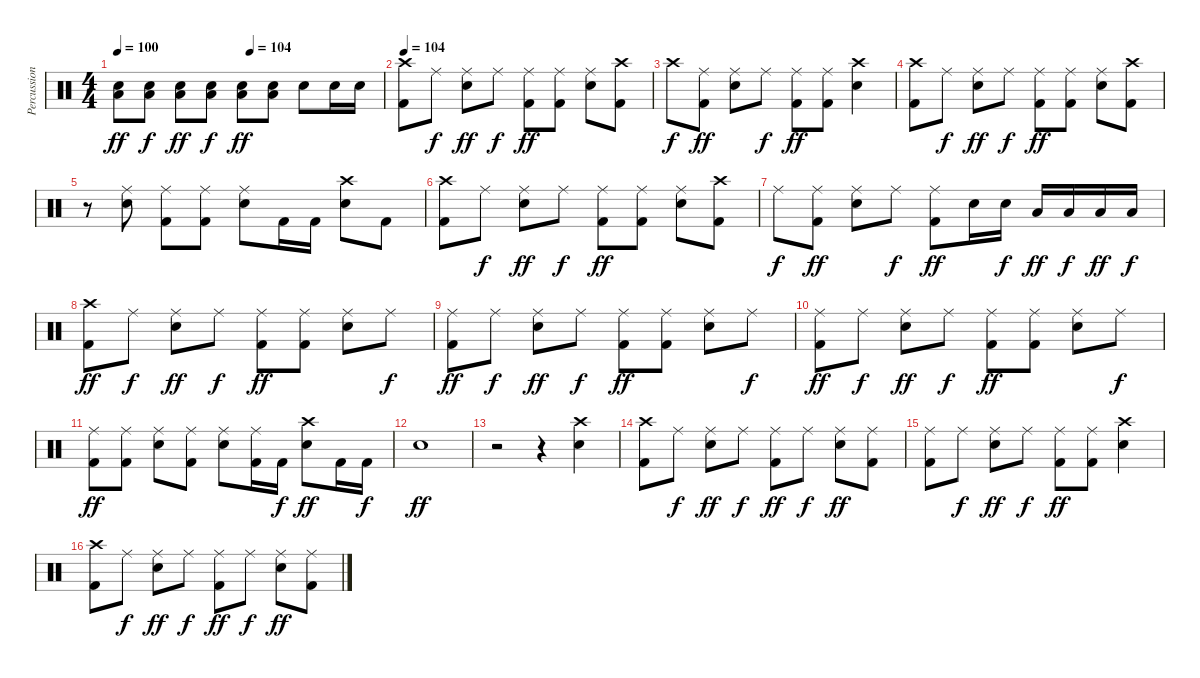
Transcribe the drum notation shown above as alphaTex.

\track ("Percussion" "Percussion") {instrument percussion}
\staff {score}
\articulation defaults
\ts (4 4)
\tempo 100
\tempo (104 0.5)
\clef neutral
\ks c
("Snare (hit) 2" "Low Floor Tom (hit)").8{dy ff} ("Snare (hit) 2" "Low Floor Tom (hit)").8{dy f} ("Snare (hit) 2" "Low Floor Tom (hit)").8{dy ff} ("Snare (hit) 2" "Low Floor Tom (hit)").8{dy f} ("Snare (hit) 2" "Low Floor Tom (hit)").8{dy ff} ("Snare (hit) 2" "Low Floor Tom (hit)").8 "Snare (hit) 2".8 "Snare (hit) 2".16 "Snare (hit) 2".16 |
\tempo 104
("Crash high (hit)" "Kick (hit) 2").8 "Ride (middle)".8{dy f} ("Ride (middle)" "Snare (hit) 2").8{dy ff} "Ride (middle)".8{dy f} ("Ride (middle)" "Kick (hit) 2").8{dy ff} ("Ride (middle)" "Kick (hit) 2").8 ("Ride (middle)" "Snare (hit) 2").8 ("Crash high (hit)" "Kick (hit) 2").8 |
"Crash high (hit)".8{dy f} ("Ride (middle)" "Kick (hit) 2").8{dy ff} ("Ride (middle)" "Snare (hit) 2").8 "Ride (middle)".8{dy f} ("Ride (middle)" "Kick (hit) 2").8{dy ff} ("Ride (middle)" "Kick (hit) 2").8 ("Crash high (hit)" "Snare (hit) 2").4 |
("Crash high (hit)" "Kick (hit) 2").8 "Ride (middle)".8{dy f} ("Ride (middle)" "Snare (hit) 2").8{dy ff} "Ride (middle)".8{dy f} ("Ride (middle)" "Kick (hit) 2").8{dy ff} ("Ride (middle)" "Kick (hit) 2").8 ("Ride (middle)" "Snare (hit) 2").8 ("Crash high (hit)" "Kick (hit) 2").8 |
r.8 ("Ride (middle)" "Snare (hit) 2").8 ("Ride (middle)" "Kick (hit) 2").8 ("Ride (middle)" "Kick (hit) 2").8 ("Ride (middle)" "Snare (hit) 2").8 "Kick (hit) 2".16 "Kick (hit) 2".16 ("Crash high (hit)" "Snare (hit) 2").8 "Kick (hit) 2".8 |
("Crash high (hit)" "Kick (hit) 2").8 "Ride (middle)".8{dy f} ("Ride (middle)" "Snare (hit) 2").8{dy ff} "Ride (middle)".8{dy f} ("Ride (middle)" "Kick (hit) 2").8{dy ff} ("Ride (middle)" "Kick (hit) 2").8 ("Ride (middle)" "Snare (hit) 2").8 ("Crash high (hit)" "Kick (hit) 2").8 |
"Ride (middle)".8{dy f} ("Ride (middle)" "Kick (hit) 2").8{dy ff} ("Ride (middle)" "Snare (hit) 2").8 "Ride (middle)".8{dy f} ("Ride (middle)" "Kick (hit) 2").8{dy ff} "Snare (hit) 2".16 "Snare (hit) 2".16{dy f} "Low Tom (hit)".16{dy ff} "Low Tom (hit)".16{dy f} "Low Floor Tom (hit)".16{dy ff} "Low Floor Tom (hit)".16{dy f} |
("Crash high (hit)" "Kick (hit) 2").8{dy ff} "Ride (middle)".8{dy f} ("Ride (middle)" "Snare (hit) 2").8{dy ff} "Ride (middle)".8{dy f} ("Ride (middle)" "Kick (hit) 2").8{dy ff} ("Ride (middle)" "Kick (hit) 2").8 ("Ride (middle)" "Snare (hit) 2").8 "Ride (middle)".8{dy f} |
("Ride (middle)" "Kick (hit) 2").8{dy ff} "Ride (middle)".8{dy f} ("Ride (middle)" "Snare (hit) 2").8{dy ff} "Ride (middle)".8{dy f} ("Ride (middle)" "Kick (hit) 2").8{dy ff} ("Ride (middle)" "Kick (hit) 2").8 ("Ride (middle)" "Snare (hit) 2").8 "Ride (middle)".8{dy f} |
("Ride (middle)" "Kick (hit) 2").8{dy ff} "Ride (middle)".8{dy f} ("Ride (middle)" "Snare (hit) 2").8{dy ff} "Ride (middle)".8{dy f} ("Ride (middle)" "Kick (hit) 2").8{dy ff} ("Ride (middle)" "Kick (hit) 2").8 ("Ride (middle)" "Snare (hit) 2").8 "Ride (middle)".8{dy f} |
("Ride (middle)" "Kick (hit) 2").8{dy ff} ("Ride (middle)" "Kick (hit) 2").8 ("Ride (middle)" "Snare (hit) 2").8 ("Ride (middle)" "Kick (hit) 2").8 ("Ride (middle)" "Snare (hit) 2").8 ("Ride (middle)" "Kick (hit) 2").16 "Kick (hit) 2".16{dy f} ("Crash high (hit)" "Snare (hit) 2").8{dy ff} "Kick (hit) 2".16 "Kick (hit) 2".16{dy f} |
"Snare (hit) 2".1{dy ff} |
r.2 r.4 ("Crash high (hit)" "Snare (hit) 2").4 |
("Crash high (hit)" "Kick (hit) 2").8 "Ride (middle)".8{dy f} ("Ride (middle)" "Snare (hit) 2").8{dy ff} "Ride (middle)".8{dy f} ("Ride (middle)" "Kick (hit) 2").8{dy ff} "Ride (middle)".8{dy f} ("Ride (middle)" "Snare (hit) 2").8{dy ff} ("Ride (middle)" "Kick (hit) 2").8 |
("Ride (middle)" "Kick (hit) 2").8 "Ride (middle)".8{dy f} ("Ride (middle)" "Snare (hit) 2").8{dy ff} "Ride (middle)".8{dy f} ("Ride (middle)" "Kick (hit) 2").8{dy ff} ("Ride (middle)" "Kick (hit) 2").8 ("Crash high (hit)" "Snare (hit) 2").4 |
("Crash high (hit)" "Kick (hit) 2").8 "Ride (middle)".8{dy f} ("Ride (middle)" "Snare (hit) 2").8{dy ff} "Ride (middle)".8{dy f} ("Ride (middle)" "Kick (hit) 2").8{dy ff} "Ride (middle)".8{dy f} ("Ride (middle)" "Snare (hit) 2").8{dy ff} ("Ride (middle)" "Kick (hit) 2").8
